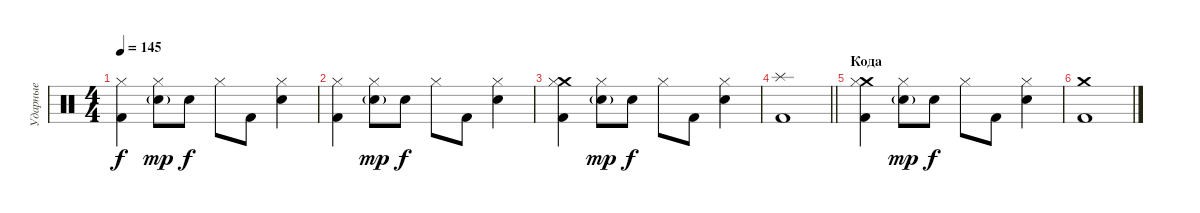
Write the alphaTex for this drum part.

\track ("Ударные" "Ударные") {instrument percussion}
\staff {score}
\articulation defaults
\ts (4 4)
\tempo 145
\clef neutral
\ks c
("Kick (hit) 2" "Hi-Hat (closed)").4{dy f} ("Electric Snare (hit)"{g} "Hi-Hat (closed)").8{dy mp} "Electric Snare (hit)".8{dy f} "Hi-Hat (closed)".8 "Kick (hit) 2".8 ("Electric Snare (hit)" "Hi-Hat (closed)").4 |
("Kick (hit) 2" "Hi-Hat (closed)").4 ("Electric Snare (hit)"{g} "Hi-Hat (closed)").8{dy mp} "Electric Snare (hit)".8{dy f} "Hi-Hat (closed)".8 "Kick (hit) 2".8 ("Electric Snare (hit)" "Hi-Hat (closed)").4 |
("Crash medium (hit)" "Kick (hit) 2" "Hi-Hat (closed)").4 ("Electric Snare (hit)"{g} "Hi-Hat (closed)").8{dy mp} "Electric Snare (hit)".8{dy f} "Hi-Hat (closed)".8 "Kick (hit) 2".8 ("Electric Snare (hit)" "Hi-Hat (closed)").4 |
\barLineRight lightlight
("Splash (hit)" "Kick (hit) 2").1 |
\section ("" "Кода")
("Crash medium (hit)" "Kick (hit) 2" "Hi-Hat (closed)").4 ("Electric Snare (hit)"{g} "Hi-Hat (closed)").8{dy mp} "Electric Snare (hit)".8{dy f} "Hi-Hat (closed)".8 "Kick (hit) 2".8 ("Electric Snare (hit)" "Hi-Hat (closed)").4 |
("Crash medium (hit)" "Kick (hit) 2").1
